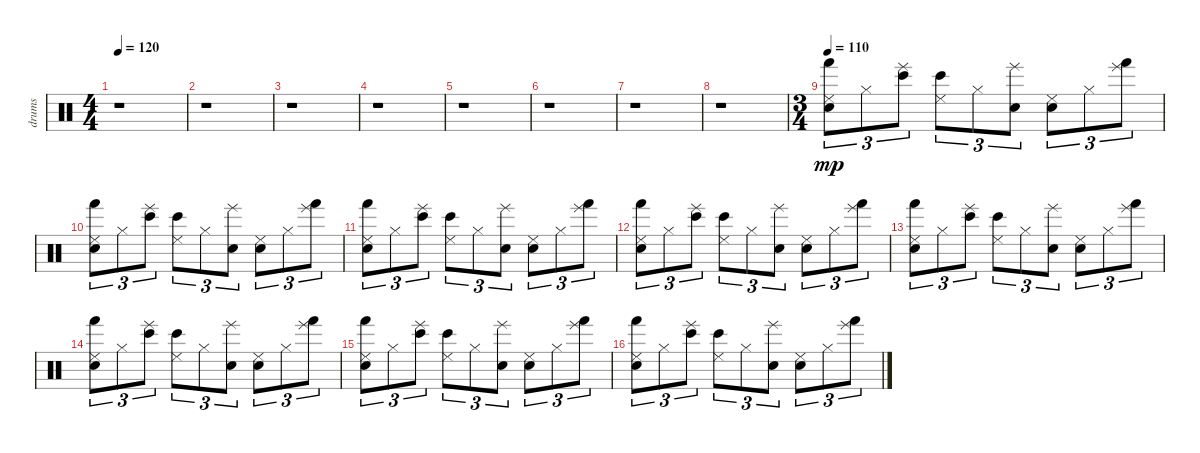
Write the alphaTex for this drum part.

\track ("drums" "drums") {instrument percussion}
\staff {score}
\articulation defaults
\ts (4 4)
\tempo 120
\clef neutral
\ks c
r.1{dy fff} |
r.1 |
r.1 |
r.1 |
r.1 |
r.1 |
r.1 |
r.1 |
\ts (3 4)
\tempo 110
("Snare (hit)" "Hand (hit)" "Cowbell low (tip)").8{tu (3 2) dy mp volume 11} "Cowbell high (tip)".8{tu (3 2)} ("Bongo High (hit)" "Hand (slap)").8{tu (3 2)} ("Bongo High (hit)" "Cowbell low (tip)").8{tu (3 2)} "Cowbell high (tip)".8{tu (3 2)} ("Electric Snare (hit)" "Hand (slap)").8{tu (3 2)} ("Electric Snare (hit)" "Cowbell low (tip)").8{tu (3 2)} "Cowbell high (tip)".8{tu (3 2)} ("Hand (hit)" "Hand (slap)").8{tu (3 2)} |
("Snare (hit)" "Hand (hit)" "Cowbell low (tip)").8{tu (3 2)} "Cowbell high (tip)".8{tu (3 2)} ("Bongo High (hit)" "Hand (slap)").8{tu (3 2)} ("Bongo High (hit)" "Cowbell low (tip)").8{tu (3 2)} "Cowbell high (tip)".8{tu (3 2)} ("Electric Snare (hit)" "Hand (slap)").8{tu (3 2)} ("Electric Snare (hit)" "Cowbell low (tip)").8{tu (3 2)} "Cowbell high (tip)".8{tu (3 2)} ("Hand (hit)" "Hand (slap)").8{tu (3 2)} |
("Snare (hit)" "Hand (hit)" "Cowbell low (tip)").8{tu (3 2)} "Cowbell high (tip)".8{tu (3 2)} ("Bongo High (hit)" "Hand (slap)").8{tu (3 2)} ("Bongo High (hit)" "Cowbell low (tip)").8{tu (3 2)} "Cowbell high (tip)".8{tu (3 2)} ("Electric Snare (hit)" "Hand (slap)").8{tu (3 2)} ("Electric Snare (hit)" "Cowbell low (tip)").8{tu (3 2)} "Cowbell high (tip)".8{tu (3 2)} ("Hand (hit)" "Hand (slap)").8{tu (3 2)} |
("Snare (hit)" "Hand (hit)" "Cowbell low (tip)").8{tu (3 2)} "Cowbell high (tip)".8{tu (3 2)} ("Bongo High (hit)" "Hand (slap)").8{tu (3 2)} ("Bongo High (hit)" "Cowbell low (tip)").8{tu (3 2)} "Cowbell high (tip)".8{tu (3 2)} ("Electric Snare (hit)" "Hand (slap)").8{tu (3 2)} ("Electric Snare (hit)" "Cowbell low (tip)").8{tu (3 2)} "Cowbell high (tip)".8{tu (3 2)} ("Hand (hit)" "Hand (slap)").8{tu (3 2)} |
("Snare (hit)" "Hand (hit)" "Cowbell low (tip)").8{tu (3 2)} "Cowbell high (tip)".8{tu (3 2)} ("Bongo High (hit)" "Hand (slap)").8{tu (3 2)} ("Bongo High (hit)" "Cowbell low (tip)").8{tu (3 2)} "Cowbell high (tip)".8{tu (3 2)} ("Electric Snare (hit)" "Hand (slap)").8{tu (3 2)} ("Electric Snare (hit)" "Cowbell low (tip)").8{tu (3 2)} "Cowbell high (tip)".8{tu (3 2)} ("Hand (hit)" "Hand (slap)").8{tu (3 2)} |
("Snare (hit)" "Hand (hit)" "Cowbell low (tip)").8{tu (3 2)} "Cowbell high (tip)".8{tu (3 2)} ("Bongo High (hit)" "Hand (slap)").8{tu (3 2)} ("Bongo High (hit)" "Cowbell low (tip)").8{tu (3 2)} "Cowbell high (tip)".8{tu (3 2)} ("Electric Snare (hit)" "Hand (slap)").8{tu (3 2)} ("Electric Snare (hit)" "Cowbell low (tip)").8{tu (3 2)} "Cowbell high (tip)".8{tu (3 2)} ("Hand (hit)" "Hand (slap)").8{tu (3 2)} |
("Snare (hit)" "Hand (hit)" "Cowbell low (tip)").8{tu (3 2)} "Cowbell high (tip)".8{tu (3 2)} ("Bongo High (hit)" "Hand (slap)").8{tu (3 2)} ("Bongo High (hit)" "Cowbell low (tip)").8{tu (3 2)} "Cowbell high (tip)".8{tu (3 2)} ("Electric Snare (hit)" "Hand (slap)").8{tu (3 2)} ("Electric Snare (hit)" "Cowbell low (tip)").8{tu (3 2)} "Cowbell high (tip)".8{tu (3 2)} ("Hand (hit)" "Hand (slap)").8{tu (3 2)} |
("Snare (hit)" "Hand (hit)" "Cowbell low (tip)").8{tu (3 2)} "Cowbell high (tip)".8{tu (3 2)} ("Bongo High (hit)" "Hand (slap)").8{tu (3 2)} ("Bongo High (hit)" "Cowbell low (tip)").8{tu (3 2)} "Cowbell high (tip)".8{tu (3 2)} ("Electric Snare (hit)" "Hand (slap)").8{tu (3 2)} ("Electric Snare (hit)" "Cowbell low (tip)").8{tu (3 2)} "Cowbell high (tip)".8{tu (3 2)} ("Hand (hit)" "Hand (slap)").8{tu (3 2)}
